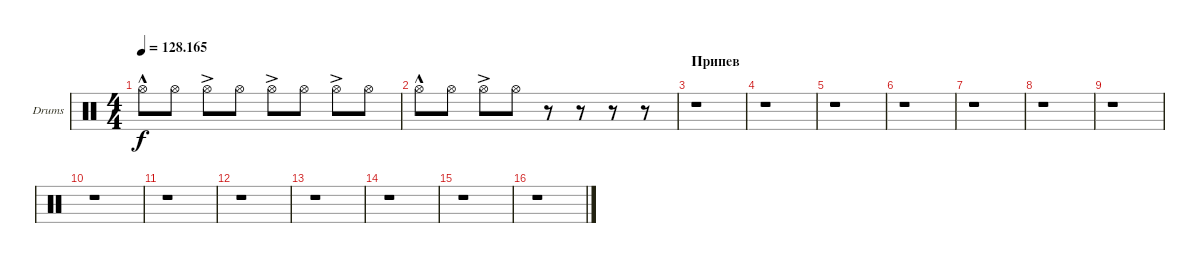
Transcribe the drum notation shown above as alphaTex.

\defaultSystemsLayout 4
\bracketExtendMode groupsimilarinstruments
\firstSystemTrackNameOrientation horizontal
\otherSystemsTrackNameOrientation horizontal
\track ("Drumkit" "Drums") {instrument percussion}
\staff {score}
\articulation defaults
\ts (4 4)
\tempo
128.165
\accidentals auto
\clef neutral
\ottava regular
\simile none
\ks c "Hi-Hat (open)"{hac}.8{dy f} "Hi-Hat (open)".8 "Hi-Hat (open)"{ac}.8 "Hi-Hat (open)".8 "Hi-Hat (open)"{ac}.8 "Hi-Hat (open)".8 "Hi-Hat (open)"{ac}.8 "Hi-Hat (open)".8
|
"Hi-Hat (open)"{hac}.8 "Hi-Hat (open)".8 "Hi-Hat (open)"{ac}.8 "Hi-Hat (open)".8 r.8 r.8 r.8 r.8 |
\section ("" "Припев")
r.1 |
r.1 |
r.1 |
r.1 |
r.1 |
r.1 |
r.1 |
r.1 |
r.1 |
r.1 |
r.1 |
r.1 |
r.1 |
r.1
